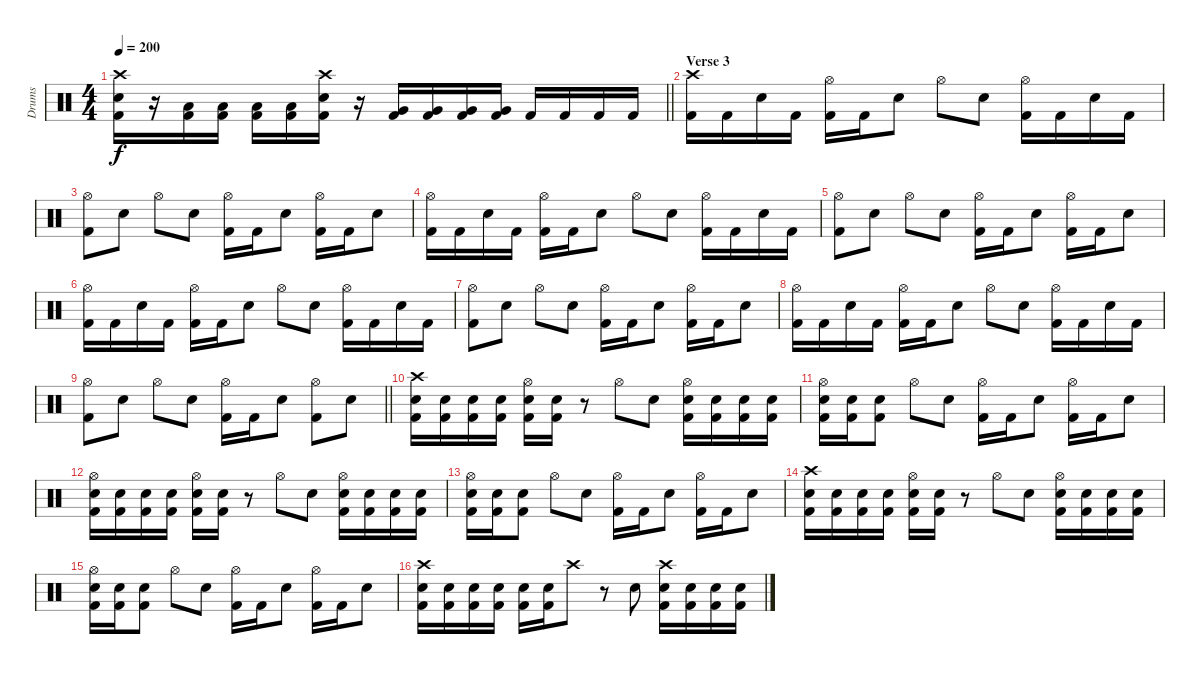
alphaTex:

\track ("Drums" "Drums") {instrument percussion}
\staff {score}
\articulation defaults
\ts (4 4)
\tempo 200
\clef neutral
\barLineRight lightlight
\ks c
("Crash high (hit)" "Snare (hit) 2" "Kick (hit) 2").16{dy f} r.16 ("Low Tom (hit)" "Kick (hit) 2").16 ("Low Tom (hit)" "Kick (hit) 2").16 ("Low Tom (hit)" "Kick (hit) 2").16 ("Low Tom (hit)" "Kick (hit) 2").16 ("Crash high (hit)" "Snare (hit) 2" "Kick (hit) 2").16 r.16 ("Very Low Tom (hit)" "Kick (hit) 2").16 ("Very Low Tom (hit)" "Kick (hit) 2").16 ("Very Low Tom (hit)" "Kick (hit) 2").16 ("Very Low Tom (hit)" "Kick (hit) 2").16 "Kick (hit) 2".16 "Kick (hit) 2".16 "Kick (hit) 2".16 "Kick (hit) 2".16 |
\section ("" "Verse 3")
("Crash high (hit)" "Kick (hit) 2").16 "Kick (hit) 2".16 "Snare (hit) 2".16 "Kick (hit) 2".16 ("Hi-Hat (open)" "Kick (hit) 2").16 "Kick (hit) 2".16 "Snare (hit) 2".8 "Hi-Hat (open)".8 "Snare (hit) 2".8 ("Hi-Hat (open)" "Kick (hit) 2").16 "Kick (hit) 2".16 "Snare (hit) 2".16 "Kick (hit) 2".16 |
("Hi-Hat (open)" "Kick (hit) 2").8 "Snare (hit) 2".8 "Hi-Hat (open)".8 "Snare (hit) 2".8 ("Hi-Hat (open)" "Kick (hit) 2").16 "Kick (hit) 2".16 "Snare (hit) 2".8 ("Hi-Hat (open)" "Kick (hit) 2").16 "Kick (hit) 2".16 "Snare (hit) 2".8 |
("Hi-Hat (open)" "Kick (hit) 2").16 "Kick (hit) 2".16 "Snare (hit) 2".16 "Kick (hit) 2".16 ("Hi-Hat (open)" "Kick (hit) 2").16 "Kick (hit) 2".16 "Snare (hit) 2".8 "Hi-Hat (open)".8 "Snare (hit) 2".8 ("Hi-Hat (open)" "Kick (hit) 2").16 "Kick (hit) 2".16 "Snare (hit) 2".16 "Kick (hit) 2".16 |
("Hi-Hat (open)" "Kick (hit) 2").8 "Snare (hit) 2".8 "Hi-Hat (open)".8 "Snare (hit) 2".8 ("Hi-Hat (open)" "Kick (hit) 2").16 "Kick (hit) 2".16 "Snare (hit) 2".8 ("Hi-Hat (open)" "Kick (hit) 2").16 "Kick (hit) 2".16 "Snare (hit) 2".8 |
("Hi-Hat (open)" "Kick (hit) 2").16 "Kick (hit) 2".16 "Snare (hit) 2".16 "Kick (hit) 2".16 ("Hi-Hat (open)" "Kick (hit) 2").16 "Kick (hit) 2".16 "Snare (hit) 2".8 "Hi-Hat (open)".8 "Snare (hit) 2".8 ("Hi-Hat (open)" "Kick (hit) 2").16 "Kick (hit) 2".16 "Snare (hit) 2".16 "Kick (hit) 2".16 |
("Hi-Hat (open)" "Kick (hit) 2").8 "Snare (hit) 2".8 "Hi-Hat (open)".8 "Snare (hit) 2".8 ("Hi-Hat (open)" "Kick (hit) 2").16 "Kick (hit) 2".16 "Snare (hit) 2".8 ("Hi-Hat (open)" "Kick (hit) 2").16 "Kick (hit) 2".16 "Snare (hit) 2".8 |
("Hi-Hat (open)" "Kick (hit) 2").16 "Kick (hit) 2".16 "Snare (hit) 2".16 "Kick (hit) 2".16 ("Hi-Hat (open)" "Kick (hit) 2").16 "Kick (hit) 2".16 "Snare (hit) 2".8 "Hi-Hat (open)".8 "Snare (hit) 2".8 ("Hi-Hat (open)" "Kick (hit) 2").16 "Kick (hit) 2".16 "Snare (hit) 2".16 "Kick (hit) 2".16 |
\barLineRight lightlight
("Hi-Hat (open)" "Kick (hit) 2").8 "Snare (hit) 2".8 "Hi-Hat (open)".8 "Snare (hit) 2".8 ("Hi-Hat (open)" "Kick (hit) 2").16 "Kick (hit) 2".16 "Snare (hit) 2".8 ("Hi-Hat (open)" "Kick (hit) 2").8 "Snare (hit) 2".8 |
("Crash high (hit)" "Snare (hit) 2" "Kick (hit) 2").16 ("Snare (hit) 2" "Kick (hit) 2").16 ("Snare (hit) 2" "Kick (hit) 2").16 ("Snare (hit) 2" "Kick (hit) 2").16 ("Hi-Hat (open)" "Snare (hit) 2" "Kick (hit) 2").16 ("Snare (hit) 2" "Kick (hit) 2").16 r.8 "Hi-Hat (open)".8 "Snare (hit) 2".8 ("Hi-Hat (open)" "Snare (hit) 2" "Kick (hit) 2").16 ("Snare (hit) 2" "Kick (hit) 2").16 ("Snare (hit) 2" "Kick (hit) 2").16 ("Snare (hit) 2" "Kick (hit) 2").16 |
("Hi-Hat (open)" "Snare (hit) 2" "Kick (hit) 2").16 ("Snare (hit) 2" "Kick (hit) 2").16 ("Snare (hit) 2" "Kick (hit) 2").8 "Hi-Hat (open)".8 "Snare (hit) 2".8 ("Hi-Hat (open)" "Kick (hit) 2").16 "Kick (hit) 2".16 "Snare (hit) 2".8 ("Hi-Hat (open)" "Kick (hit) 2").16 "Kick (hit) 2".16 "Snare (hit) 2".8 |
("Hi-Hat (open)" "Snare (hit) 2" "Kick (hit) 2").16 ("Snare (hit) 2" "Kick (hit) 2").16 ("Snare (hit) 2" "Kick (hit) 2").16 ("Snare (hit) 2" "Kick (hit) 2").16 ("Hi-Hat (open)" "Snare (hit) 2" "Kick (hit) 2").16 ("Snare (hit) 2" "Kick (hit) 2").16 r.8 "Hi-Hat (open)".8 "Snare (hit) 2".8 ("Hi-Hat (open)" "Snare (hit) 2" "Kick (hit) 2").16 ("Snare (hit) 2" "Kick (hit) 2").16 ("Snare (hit) 2" "Kick (hit) 2").16 ("Snare (hit) 2" "Kick (hit) 2").16 |
("Hi-Hat (open)" "Snare (hit) 2" "Kick (hit) 2").16 ("Snare (hit) 2" "Kick (hit) 2").16 ("Snare (hit) 2" "Kick (hit) 2").8 "Hi-Hat (open)".8 "Snare (hit) 2".8 ("Hi-Hat (open)" "Kick (hit) 2").16 "Kick (hit) 2".16 "Snare (hit) 2".8 ("Hi-Hat (open)" "Kick (hit) 2").16 "Kick (hit) 2".16 "Snare (hit) 2".8 |
("Crash high (hit)" "Snare (hit) 2" "Kick (hit) 2").16 ("Snare (hit) 2" "Kick (hit) 2").16 ("Snare (hit) 2" "Kick (hit) 2").16 ("Snare (hit) 2" "Kick (hit) 2").16 ("Hi-Hat (open)" "Snare (hit) 2" "Kick (hit) 2").16 ("Snare (hit) 2" "Kick (hit) 2").16 r.8 "Hi-Hat (open)".8 "Snare (hit) 2".8 ("Hi-Hat (open)" "Snare (hit) 2" "Kick (hit) 2").16 ("Snare (hit) 2" "Kick (hit) 2").16 ("Snare (hit) 2" "Kick (hit) 2").16 ("Snare (hit) 2" "Kick (hit) 2").16 |
("Hi-Hat (open)" "Snare (hit) 2" "Kick (hit) 2").16 ("Snare (hit) 2" "Kick (hit) 2").16 ("Snare (hit) 2" "Kick (hit) 2").8 "Hi-Hat (open)".8 "Snare (hit) 2".8 ("Hi-Hat (open)" "Kick (hit) 2").16 "Kick (hit) 2".16 "Snare (hit) 2".8 ("Hi-Hat (open)" "Kick (hit) 2").16 "Kick (hit) 2".16 "Snare (hit) 2".8 |
("Crash high (hit)" "Snare (hit) 2" "Kick (hit) 2").16 ("Snare (hit) 2" "Kick (hit) 2").16 ("Snare (hit) 2" "Kick (hit) 2").16 ("Snare (hit) 2" "Kick (hit) 2").16 ("Snare (hit) 2" "Kick (hit) 2").16 ("Snare (hit) 2" "Kick (hit) 2").16 "Crash high (hit)".8 r.8 "Snare (hit) 2".8 ("Crash high (hit)" "Snare (hit) 2" "Kick (hit) 2").16 ("Snare (hit) 2" "Kick (hit) 2").16 ("Snare (hit) 2" "Kick (hit) 2").16 ("Snare (hit) 2" "Kick (hit) 2").16
